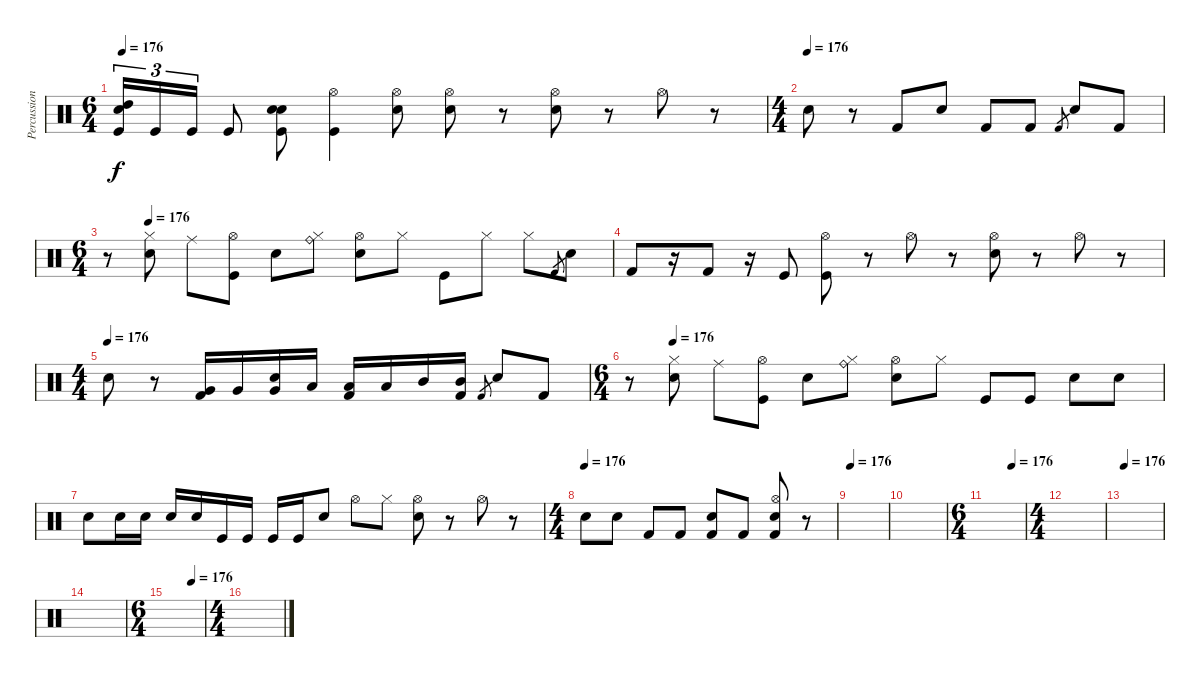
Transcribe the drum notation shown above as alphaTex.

\track ("Percussion" "Percussion") {instrument percussion}
\staff {score}
\articulation defaults
\ts (6 4)
\tempo 176
\clef neutral
\ks c
("High Tom (hit)" "Snare (hit) 2" "Kick (hit)").16{tu (3 2) dy f} "Kick (hit)".16{tu (3 2)} "Kick (hit)".16{tu (3 2)} "Kick (hit)".8 ("Electric Snare (hit)" "Snare (hit) 2" "Kick (hit)").8 ("Hi-Hat (open)" "Kick (hit)").4 ("Hi-Hat (open)" "Snare (hit) 2").8 ("Hi-Hat (open)" "Snare (hit) 2").8 r.8 ("Hi-Hat (open)" "Snare (hit) 2").8 r.8 "Hi-Hat (open)".8 r.8 |
\ts (4 4)
\tempo (176)
"Electric Snare (hit)".8 r.8 "Kick (hit) 2".8 "Snare (hit) 2".8 "Kick (hit) 2".8 "Kick (hit) 2".8 "Kick (hit) 2".8{gr} "Snare (hit) 2".8 "Kick (hit) 2".8 |
\ts (6 4)
\tempo (176 0.08333333333333333)
r.8 ("Hi-Hat (closed)" "Snare (hit) 2").8 "Ride (middle)".8 ("Hi-Hat (open)" "Kick (hit)").8 "Snare (hit) 2".8 ("Hi-Hat (closed)" "Ride (bell)").8 ("Hi-Hat (open)" "Snare (hit) 2").8 "Hi-Hat (closed)".8 "Kick (hit)".8 "Hi-Hat (closed)".8 "Hi-Hat (closed)".8 "Kick (hit) 2".8{gr} "Snare (hit) 2".8 |
"Kick (hit) 2".8 r.16 "Kick (hit) 2".8 r.16 "Kick (hit)".8 ("Hi-Hat (open)" "Kick (hit)").8 r.8 "Hi-Hat (open)".8 r.8 ("Hi-Hat (open)" "Snare (hit) 2").8 r.8 "Hi-Hat (open)".8 r.8 |
\ts (4 4)
\tempo (176)
"Electric Snare (hit)".8 r.8 ("Kick (hit) 2" "Very Low Tom (hit)").16 "Very Low Tom (hit)".16 ("Snare (hit) 2" "Very Low Tom (hit)").16 "Low Tom (hit)".16 ("Kick (hit) 2" "Low Tom (hit)").16 "Low Tom (hit)".16 "Mid Tom (hit)".16 ("Kick (hit) 2" "Mid Tom (hit)").16 "Kick (hit) 2".8{gr} "Snare (hit) 2".8 "Kick (hit) 2".8 |
\ts (6 4)
\tempo (176 0.08333333333333333)
r.8 ("Hi-Hat (closed)" "Snare (hit) 2").8 "Ride (middle)".8 ("Hi-Hat (open)" "Kick (hit)").8 "Snare (hit) 2".8 ("Hi-Hat (closed)" "Ride (bell)").8 ("Hi-Hat (open)" "Snare (hit) 2").8 "Hi-Hat (closed)".8 "Kick (hit)".8 "Kick (hit)".8 "Snare (hit) 2".8 "Snare (hit) 2".8 |
"Snare (hit) 2".8 "Snare (hit) 2".16 "Snare (hit) 2".16 "Snare (hit) 2".16 "Snare (hit) 2".16 "Kick (hit)".16 "Kick (hit)".16 "Kick (hit)".16 "Kick (hit)".16 "Snare (hit) 2".8 "Hi-Hat (open)".8 "Hi-Hat (closed)".8 ("Hi-Hat (open)" "Snare (hit) 2").8 r.8 "Hi-Hat (open)".8 r.8 |
\ts (4 4)
\tempo (176)
"Electric Snare (hit)".8 "Snare (hit) 2".8 "Kick (hit) 2".8 "Kick (hit) 2".8 ("Snare (hit) 2" "Kick (hit) 2").8 "Kick (hit) 2".8 ("Hi-Hat (open)" "Snare (hit) 2" "Kick (hit) 2").8 r.8 |
\tempo 176
|
|
\ts (6 4)
\tempo (176 0.6666666666666666)
|
\ts (4 4)
|
\tempo 176
|
|
\ts (6 4)
\tempo (176 0.6666666666666666)
|
\ts (4 4)
